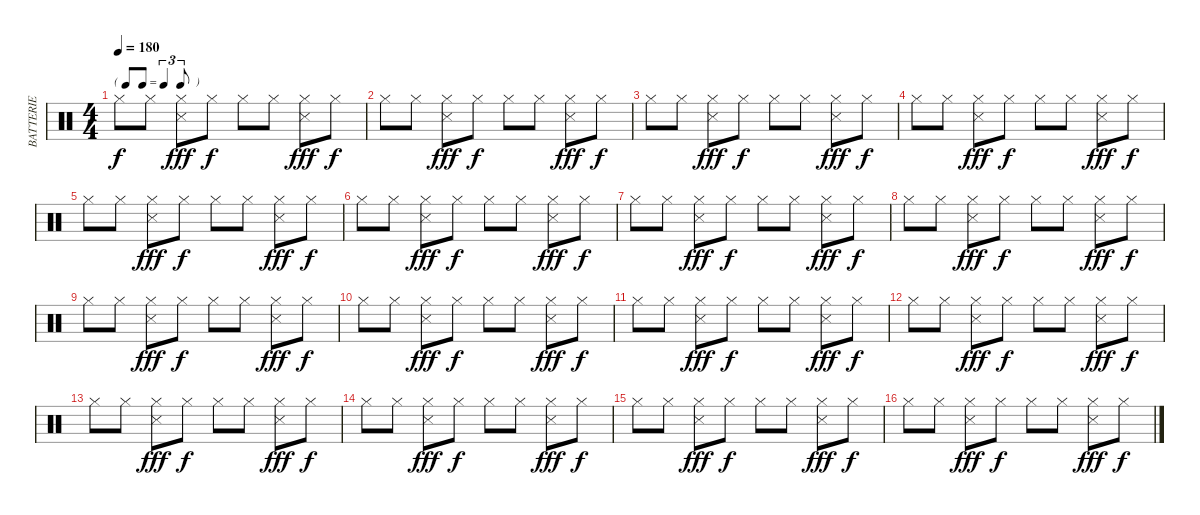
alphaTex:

\track ("BATTERIE" "BATTERIE") {instrument percussion}
\staff {score}
\articulation defaults
\ts (4 4)
\tf triplet8th
\tempo 180
\clef neutral
\ks c "Hi-Hat (closed)".8{dy f} "Hi-Hat (closed)".8
("Hi-Hat (closed)" "Snare (side stick) 3").8{dy fff} "Hi-Hat (closed)".8{dy f} "Hi-Hat (closed)".8 "Hi-Hat (closed)".8 ("Hi-Hat (closed)" "Snare (side stick) 3").8{dy fff} "Hi-Hat (closed)".8{dy f} |
"Hi-Hat (closed)".8 "Hi-Hat (closed)".8 ("Hi-Hat (closed)" "Snare (side stick) 3").8{dy fff} "Hi-Hat (closed)".8{dy f} "Hi-Hat (closed)".8 "Hi-Hat (closed)".8 ("Hi-Hat (closed)" "Snare (side stick) 3").8{dy fff} "Hi-Hat (closed)".8{dy f} |
"Hi-Hat (closed)".8 "Hi-Hat (closed)".8 ("Hi-Hat (closed)" "Snare (side stick) 3").8{dy fff} "Hi-Hat (closed)".8{dy f} "Hi-Hat (closed)".8 "Hi-Hat (closed)".8 ("Hi-Hat (closed)" "Snare (side stick) 3").8{dy fff} "Hi-Hat (closed)".8{dy f} |
"Hi-Hat (closed)".8 "Hi-Hat (closed)".8 ("Hi-Hat (closed)" "Snare (side stick) 3").8{dy fff} "Hi-Hat (closed)".8{dy f} "Hi-Hat (closed)".8 "Hi-Hat (closed)".8 ("Hi-Hat (closed)" "Snare (side stick) 3").8{dy fff} "Hi-Hat (closed)".8{dy f} |
"Hi-Hat (closed)".8 "Hi-Hat (closed)".8 ("Hi-Hat (closed)" "Snare (side stick) 3").8{dy fff} "Hi-Hat (closed)".8{dy f} "Hi-Hat (closed)".8 "Hi-Hat (closed)".8 ("Hi-Hat (closed)" "Snare (side stick) 3").8{dy fff} "Hi-Hat (closed)".8{dy f} |
"Hi-Hat (closed)".8 "Hi-Hat (closed)".8 ("Hi-Hat (closed)" "Snare (side stick) 3").8{dy fff} "Hi-Hat (closed)".8{dy f} "Hi-Hat (closed)".8 "Hi-Hat (closed)".8 ("Hi-Hat (closed)" "Snare (side stick) 3").8{dy fff} "Hi-Hat (closed)".8{dy f} |
"Hi-Hat (closed)".8 "Hi-Hat (closed)".8 ("Hi-Hat (closed)" "Snare (side stick) 3").8{dy fff} "Hi-Hat (closed)".8{dy f} "Hi-Hat (closed)".8 "Hi-Hat (closed)".8 ("Hi-Hat (closed)" "Snare (side stick) 3").8{dy fff} "Hi-Hat (closed)".8{dy f} |
"Hi-Hat (closed)".8 "Hi-Hat (closed)".8 ("Hi-Hat (closed)" "Snare (side stick) 3").8{dy fff} "Hi-Hat (closed)".8{dy f} "Hi-Hat (closed)".8 "Hi-Hat (closed)".8 ("Hi-Hat (closed)" "Snare (side stick) 3").8{dy fff} "Hi-Hat (closed)".8{dy f} |
"Hi-Hat (closed)".8 "Hi-Hat (closed)".8 ("Hi-Hat (closed)" "Snare (side stick) 3").8{dy fff} "Hi-Hat (closed)".8{dy f} "Hi-Hat (closed)".8 "Hi-Hat (closed)".8 ("Hi-Hat (closed)" "Snare (side stick) 3").8{dy fff} "Hi-Hat (closed)".8{dy f} |
"Hi-Hat (closed)".8 "Hi-Hat (closed)".8 ("Hi-Hat (closed)" "Snare (side stick) 3").8{dy fff} "Hi-Hat (closed)".8{dy f} "Hi-Hat (closed)".8 "Hi-Hat (closed)".8 ("Hi-Hat (closed)" "Snare (side stick) 3").8{dy fff} "Hi-Hat (closed)".8{dy f} |
"Hi-Hat (closed)".8 "Hi-Hat (closed)".8 ("Hi-Hat (closed)" "Snare (side stick) 3").8{dy fff} "Hi-Hat (closed)".8{dy f} "Hi-Hat (closed)".8 "Hi-Hat (closed)".8 ("Hi-Hat (closed)" "Snare (side stick) 3").8{dy fff} "Hi-Hat (closed)".8{dy f} |
"Hi-Hat (closed)".8 "Hi-Hat (closed)".8 ("Hi-Hat (closed)" "Snare (side stick) 3").8{dy fff} "Hi-Hat (closed)".8{dy f} "Hi-Hat (closed)".8 "Hi-Hat (closed)".8 ("Hi-Hat (closed)" "Snare (side stick) 3").8{dy fff} "Hi-Hat (closed)".8{dy f} |
"Hi-Hat (closed)".8 "Hi-Hat (closed)".8 ("Hi-Hat (closed)" "Snare (side stick) 3").8{dy fff} "Hi-Hat (closed)".8{dy f} "Hi-Hat (closed)".8 "Hi-Hat (closed)".8 ("Hi-Hat (closed)" "Snare (side stick) 3").8{dy fff} "Hi-Hat (closed)".8{dy f} |
"Hi-Hat (closed)".8 "Hi-Hat (closed)".8 ("Hi-Hat (closed)" "Snare (side stick) 3").8{dy fff} "Hi-Hat (closed)".8{dy f} "Hi-Hat (closed)".8 "Hi-Hat (closed)".8 ("Hi-Hat (closed)" "Snare (side stick) 3").8{dy fff} "Hi-Hat (closed)".8{dy f} |
"Hi-Hat (closed)".8 "Hi-Hat (closed)".8 ("Hi-Hat (closed)" "Snare (side stick) 3").8{dy fff} "Hi-Hat (closed)".8{dy f} "Hi-Hat (closed)".8 "Hi-Hat (closed)".8 ("Hi-Hat (closed)" "Snare (side stick) 3").8{dy fff} "Hi-Hat (closed)".8{dy f} |
"Hi-Hat (closed)".8 "Hi-Hat (closed)".8 ("Hi-Hat (closed)" "Snare (side stick) 3").8{dy fff} "Hi-Hat (closed)".8{dy f} "Hi-Hat (closed)".8 "Hi-Hat (closed)".8 ("Hi-Hat (closed)" "Snare (side stick) 3").8{dy fff} "Hi-Hat (closed)".8{dy f}
